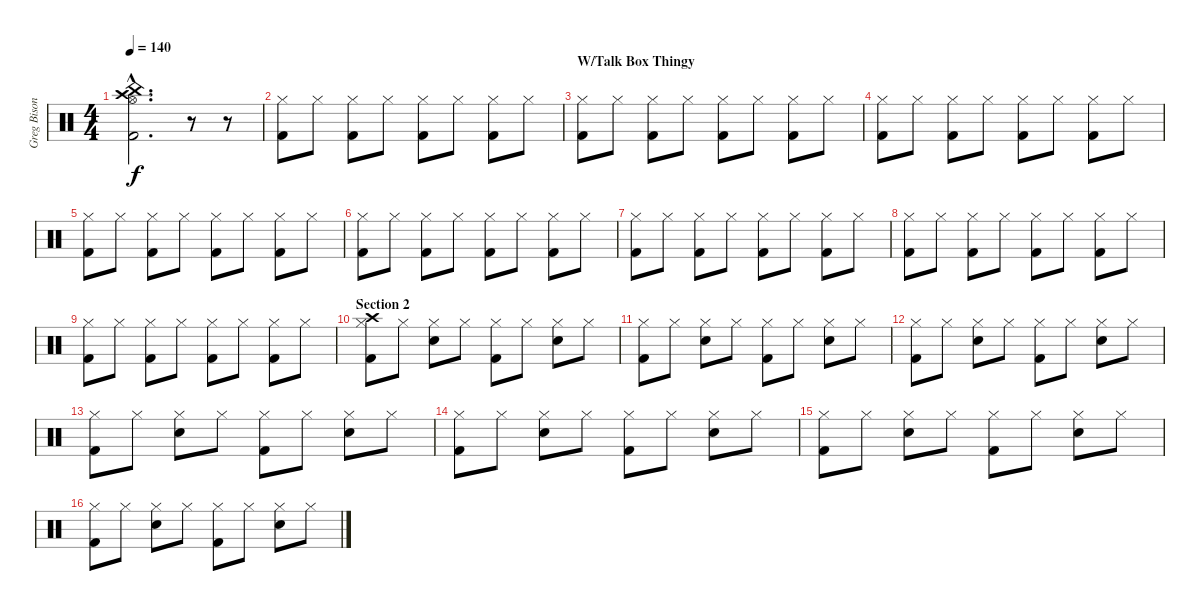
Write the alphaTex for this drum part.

\track ("Greg Bisonette" "Greg Bison") {instrument percussion}
\staff {score}
\articulation defaults
\ts (4 4)
\tempo 140
\clef neutral
\ks c
("Hi-Hat (open)"{hac} "Crash high (hit)"{hac} "China (hit)"{hac} "Kick (hit) 2"{hac}).2{d dy f} r.8 r.8 |
("Hi-Hat (closed)" "Kick (hit) 2").8 "Hi-Hat (closed)".8 ("Hi-Hat (closed)" "Kick (hit) 2").8 "Hi-Hat (closed)".8 ("Hi-Hat (closed)" "Kick (hit) 2").8 "Hi-Hat (closed)".8 ("Hi-Hat (closed)" "Kick (hit) 2").8 "Hi-Hat (closed)".8 |
\section ("" "W/Talk Box Thingy")
("Hi-Hat (closed)" "Kick (hit) 2").8 "Hi-Hat (closed)".8 ("Hi-Hat (closed)" "Kick (hit) 2").8 "Hi-Hat (closed)".8 ("Hi-Hat (closed)" "Kick (hit) 2").8 "Hi-Hat (closed)".8 ("Hi-Hat (closed)" "Kick (hit) 2").8 "Hi-Hat (closed)".8 |
("Hi-Hat (closed)" "Kick (hit) 2").8 "Hi-Hat (closed)".8 ("Hi-Hat (closed)" "Kick (hit) 2").8 "Hi-Hat (closed)".8 ("Hi-Hat (closed)" "Kick (hit) 2").8 "Hi-Hat (closed)".8 ("Hi-Hat (closed)" "Kick (hit) 2").8 "Hi-Hat (closed)".8 |
("Hi-Hat (closed)" "Kick (hit) 2").8 "Hi-Hat (closed)".8 ("Hi-Hat (closed)" "Kick (hit) 2").8 "Hi-Hat (closed)".8 ("Hi-Hat (closed)" "Kick (hit) 2").8 "Hi-Hat (closed)".8 ("Hi-Hat (closed)" "Kick (hit) 2").8 "Hi-Hat (closed)".8 |
("Hi-Hat (closed)" "Kick (hit) 2").8 "Hi-Hat (closed)".8 ("Hi-Hat (closed)" "Kick (hit) 2").8 "Hi-Hat (closed)".8 ("Hi-Hat (closed)" "Kick (hit) 2").8 "Hi-Hat (closed)".8 ("Hi-Hat (closed)" "Kick (hit) 2").8 "Hi-Hat (closed)".8 |
("Hi-Hat (closed)" "Kick (hit) 2").8 "Hi-Hat (closed)".8 ("Hi-Hat (closed)" "Kick (hit) 2").8 "Hi-Hat (closed)".8 ("Hi-Hat (closed)" "Kick (hit) 2").8 "Hi-Hat (closed)".8 ("Hi-Hat (closed)" "Kick (hit) 2").8 "Hi-Hat (closed)".8 |
("Hi-Hat (closed)" "Kick (hit) 2").8 "Hi-Hat (closed)".8 ("Hi-Hat (closed)" "Kick (hit) 2").8 "Hi-Hat (closed)".8 ("Hi-Hat (closed)" "Kick (hit) 2").8 "Hi-Hat (closed)".8 ("Hi-Hat (closed)" "Kick (hit) 2").8 "Hi-Hat (closed)".8 |
("Hi-Hat (closed)" "Kick (hit) 2").8 "Hi-Hat (closed)".8 ("Hi-Hat (closed)" "Kick (hit) 2").8 "Hi-Hat (closed)".8 ("Hi-Hat (closed)" "Kick (hit) 2").8 "Hi-Hat (closed)".8 ("Hi-Hat (closed)" "Kick (hit) 2").8 "Hi-Hat (closed)".8 |
\section ("" "Section 2")
("Crash high (hit)" "Hi-Hat (closed)" "Kick (hit) 2").8 "Hi-Hat (closed)".8 ("Hi-Hat (closed)" "Electric Snare (hit)").8 "Hi-Hat (closed)".8 ("Hi-Hat (closed)" "Kick (hit) 2").8 "Hi-Hat (closed)".8 ("Hi-Hat (closed)" "Electric Snare (hit)").8 "Hi-Hat (closed)".8 |
("Hi-Hat (closed)" "Kick (hit) 2").8 "Hi-Hat (closed)".8 ("Hi-Hat (closed)" "Electric Snare (hit)").8 "Hi-Hat (closed)".8 ("Hi-Hat (closed)" "Kick (hit) 2").8 "Hi-Hat (closed)".8 ("Hi-Hat (closed)" "Electric Snare (hit)").8 "Hi-Hat (closed)".8 |
("Hi-Hat (closed)" "Kick (hit) 2").8 "Hi-Hat (closed)".8 ("Hi-Hat (closed)" "Electric Snare (hit)").8 "Hi-Hat (closed)".8 ("Hi-Hat (closed)" "Kick (hit) 2").8 "Hi-Hat (closed)".8 ("Hi-Hat (closed)" "Electric Snare (hit)").8 "Hi-Hat (closed)".8 |
("Hi-Hat (closed)" "Kick (hit) 2").8 "Hi-Hat (closed)".8 ("Hi-Hat (closed)" "Electric Snare (hit)").8 "Hi-Hat (closed)".8 ("Hi-Hat (closed)" "Kick (hit) 2").8 "Hi-Hat (closed)".8 ("Hi-Hat (closed)" "Electric Snare (hit)").8 "Hi-Hat (closed)".8 |
("Hi-Hat (closed)" "Kick (hit) 2").8 "Hi-Hat (closed)".8 ("Hi-Hat (closed)" "Electric Snare (hit)").8 "Hi-Hat (closed)".8 ("Hi-Hat (closed)" "Kick (hit) 2").8 "Hi-Hat (closed)".8 ("Hi-Hat (closed)" "Electric Snare (hit)").8 "Hi-Hat (closed)".8 |
("Hi-Hat (closed)" "Kick (hit) 2").8 "Hi-Hat (closed)".8 ("Hi-Hat (closed)" "Electric Snare (hit)").8 "Hi-Hat (closed)".8 ("Hi-Hat (closed)" "Kick (hit) 2").8 "Hi-Hat (closed)".8 ("Hi-Hat (closed)" "Electric Snare (hit)").8 "Hi-Hat (closed)".8 |
("Hi-Hat (closed)" "Kick (hit) 2").8 "Hi-Hat (closed)".8 ("Hi-Hat (closed)" "Electric Snare (hit)").8 "Hi-Hat (closed)".8 ("Hi-Hat (closed)" "Kick (hit) 2").8 "Hi-Hat (closed)".8 ("Hi-Hat (closed)" "Electric Snare (hit)").8 "Hi-Hat (closed)".8
